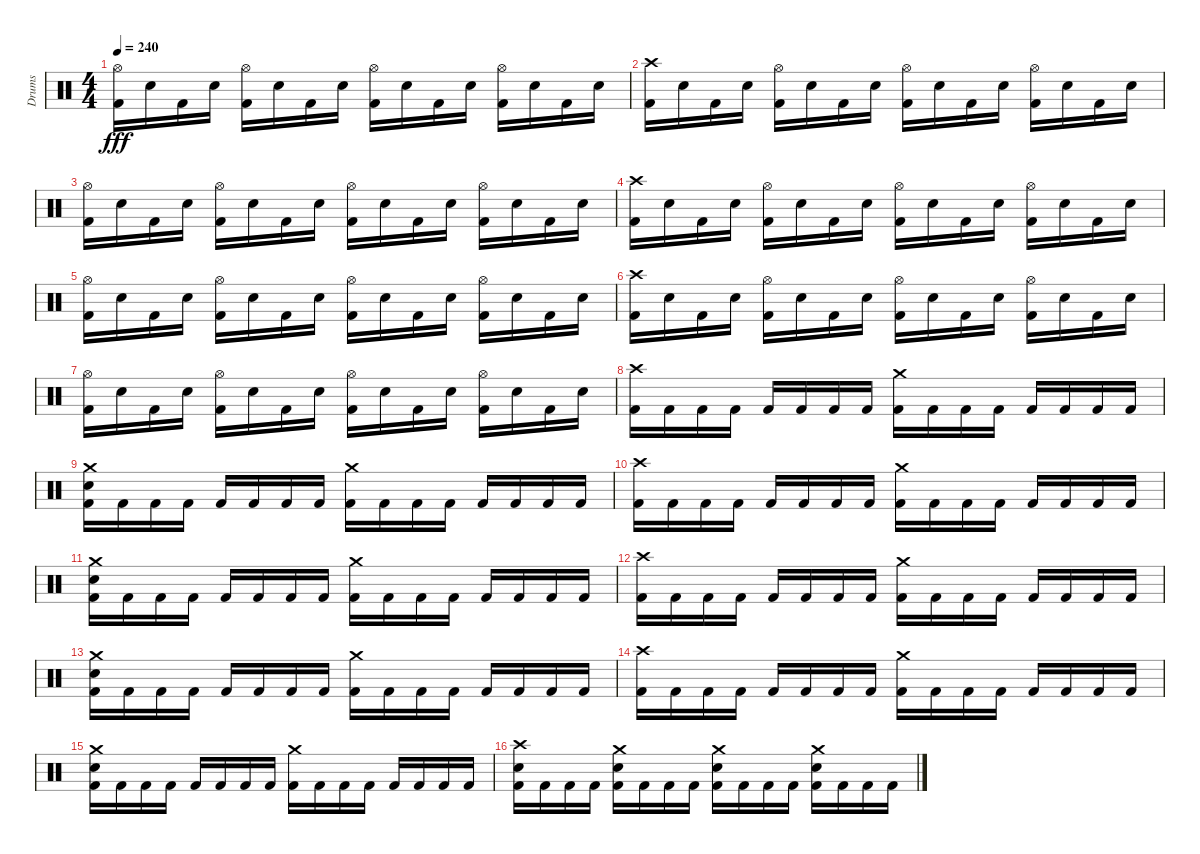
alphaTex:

\track ("Drums" "Drums") {instrument percussion}
\staff {score}
\articulation defaults
\ts (4 4)
\tempo 240
\clef neutral
\ks c
("Hi-Hat (open)" "Kick (hit) 2").16{dy fff} "Electric Snare (hit)".16 "Kick (hit) 2".16 "Electric Snare (hit)".16 ("Hi-Hat (open)" "Kick (hit) 2").16 "Electric Snare (hit)".16 "Kick (hit) 2".16 "Electric Snare (hit)".16 ("Hi-Hat (open)" "Kick (hit) 2").16 "Electric Snare (hit)".16 "Kick (hit) 2".16 "Electric Snare (hit)".16 ("Hi-Hat (open)" "Kick (hit) 2").16 "Electric Snare (hit)".16 "Kick (hit) 2".16 "Electric Snare (hit)".16 |
("Crash high (hit)" "Kick (hit) 2").16 "Electric Snare (hit)".16 "Kick (hit) 2".16 "Electric Snare (hit)".16 ("Hi-Hat (open)" "Kick (hit) 2").16 "Electric Snare (hit)".16 "Kick (hit) 2".16 "Electric Snare (hit)".16 ("Hi-Hat (open)" "Kick (hit) 2").16 "Electric Snare (hit)".16 "Kick (hit) 2".16 "Electric Snare (hit)".16 ("Hi-Hat (open)" "Kick (hit) 2").16 "Electric Snare (hit)".16 "Kick (hit) 2".16 "Electric Snare (hit)".16 |
("Hi-Hat (open)" "Kick (hit) 2").16 "Electric Snare (hit)".16 "Kick (hit) 2".16 "Electric Snare (hit)".16 ("Hi-Hat (open)" "Kick (hit) 2").16 "Electric Snare (hit)".16 "Kick (hit) 2".16 "Electric Snare (hit)".16 ("Hi-Hat (open)" "Kick (hit) 2").16 "Electric Snare (hit)".16 "Kick (hit) 2".16 "Electric Snare (hit)".16 ("Hi-Hat (open)" "Kick (hit) 2").16 "Electric Snare (hit)".16 "Kick (hit) 2".16 "Electric Snare (hit)".16 |
("Crash high (hit)" "Kick (hit) 2").16 "Electric Snare (hit)".16 "Kick (hit) 2".16 "Electric Snare (hit)".16 ("Hi-Hat (open)" "Kick (hit) 2").16 "Electric Snare (hit)".16 "Kick (hit) 2".16 "Electric Snare (hit)".16 ("Hi-Hat (open)" "Kick (hit) 2").16 "Electric Snare (hit)".16 "Kick (hit) 2".16 "Electric Snare (hit)".16 ("Hi-Hat (open)" "Kick (hit) 2").16 "Electric Snare (hit)".16 "Kick (hit) 2".16 "Electric Snare (hit)".16 |
("Hi-Hat (open)" "Kick (hit) 2").16 "Electric Snare (hit)".16 "Kick (hit) 2".16 "Electric Snare (hit)".16 ("Hi-Hat (open)" "Kick (hit) 2").16 "Electric Snare (hit)".16 "Kick (hit) 2".16 "Electric Snare (hit)".16 ("Hi-Hat (open)" "Kick (hit) 2").16 "Electric Snare (hit)".16 "Kick (hit) 2".16 "Electric Snare (hit)".16 ("Hi-Hat (open)" "Kick (hit) 2").16 "Electric Snare (hit)".16 "Kick (hit) 2".16 "Electric Snare (hit)".16 |
("Crash high (hit)" "Kick (hit) 2").16 "Electric Snare (hit)".16 "Kick (hit) 2".16 "Electric Snare (hit)".16 ("Hi-Hat (open)" "Kick (hit) 2").16 "Electric Snare (hit)".16 "Kick (hit) 2".16 "Electric Snare (hit)".16 ("Hi-Hat (open)" "Kick (hit) 2").16 "Electric Snare (hit)".16 "Kick (hit) 2".16 "Electric Snare (hit)".16 ("Hi-Hat (open)" "Kick (hit) 2").16 "Electric Snare (hit)".16 "Kick (hit) 2".16 "Electric Snare (hit)".16 |
("Hi-Hat (open)" "Kick (hit) 2").16 "Electric Snare (hit)".16 "Kick (hit) 2".16 "Electric Snare (hit)".16 ("Hi-Hat (open)" "Kick (hit) 2").16 "Electric Snare (hit)".16 "Kick (hit) 2".16 "Electric Snare (hit)".16 ("Hi-Hat (open)" "Kick (hit) 2").16 "Electric Snare (hit)".16 "Kick (hit) 2".16 "Electric Snare (hit)".16 ("Hi-Hat (open)" "Kick (hit) 2").16 "Electric Snare (hit)".16 "Kick (hit) 2".16 "Electric Snare (hit)".16 |
("Crash high (hit)" "Kick (hit) 2").16 "Kick (hit) 2".16 "Kick (hit) 2".16 "Kick (hit) 2".16 "Kick (hit) 2".16 "Kick (hit) 2".16 "Kick (hit) 2".16 "Kick (hit) 2".16 ("Crash medium (hit)" "Kick (hit) 2").16 "Kick (hit) 2".16 "Kick (hit) 2".16 "Kick (hit) 2".16 "Kick (hit) 2".16 "Kick (hit) 2".16 "Kick (hit) 2".16 "Kick (hit) 2".16 |
("Crash medium (hit)" "Electric Snare (hit)" "Kick (hit) 2").16 "Kick (hit) 2".16 "Kick (hit) 2".16 "Kick (hit) 2".16 "Kick (hit) 2".16 "Kick (hit) 2".16 "Kick (hit) 2".16 "Kick (hit) 2".16 ("Crash medium (hit)" "Kick (hit) 2").16 "Kick (hit) 2".16 "Kick (hit) 2".16 "Kick (hit) 2".16 "Kick (hit) 2".16 "Kick (hit) 2".16 "Kick (hit) 2".16 "Kick (hit) 2".16 |
("Crash high (hit)" "Kick (hit) 2").16 "Kick (hit) 2".16 "Kick (hit) 2".16 "Kick (hit) 2".16 "Kick (hit) 2".16 "Kick (hit) 2".16 "Kick (hit) 2".16 "Kick (hit) 2".16 ("Crash medium (hit)" "Kick (hit) 2").16 "Kick (hit) 2".16 "Kick (hit) 2".16 "Kick (hit) 2".16 "Kick (hit) 2".16 "Kick (hit) 2".16 "Kick (hit) 2".16 "Kick (hit) 2".16 |
("Crash medium (hit)" "Electric Snare (hit)" "Kick (hit) 2").16 "Kick (hit) 2".16 "Kick (hit) 2".16 "Kick (hit) 2".16 "Kick (hit) 2".16 "Kick (hit) 2".16 "Kick (hit) 2".16 "Kick (hit) 2".16 ("Crash medium (hit)" "Kick (hit) 2").16 "Kick (hit) 2".16 "Kick (hit) 2".16 "Kick (hit) 2".16 "Kick (hit) 2".16 "Kick (hit) 2".16 "Kick (hit) 2".16 "Kick (hit) 2".16 |
("Crash high (hit)" "Kick (hit) 2").16 "Kick (hit) 2".16 "Kick (hit) 2".16 "Kick (hit) 2".16 "Kick (hit) 2".16 "Kick (hit) 2".16 "Kick (hit) 2".16 "Kick (hit) 2".16 ("Crash medium (hit)" "Kick (hit) 2").16 "Kick (hit) 2".16 "Kick (hit) 2".16 "Kick (hit) 2".16 "Kick (hit) 2".16 "Kick (hit) 2".16 "Kick (hit) 2".16 "Kick (hit) 2".16 |
("Crash medium (hit)" "Electric Snare (hit)" "Kick (hit) 2").16 "Kick (hit) 2".16 "Kick (hit) 2".16 "Kick (hit) 2".16 "Kick (hit) 2".16 "Kick (hit) 2".16 "Kick (hit) 2".16 "Kick (hit) 2".16 ("Crash medium (hit)" "Kick (hit) 2").16 "Kick (hit) 2".16 "Kick (hit) 2".16 "Kick (hit) 2".16 "Kick (hit) 2".16 "Kick (hit) 2".16 "Kick (hit) 2".16 "Kick (hit) 2".16 |
("Crash high (hit)" "Kick (hit) 2").16 "Kick (hit) 2".16 "Kick (hit) 2".16 "Kick (hit) 2".16 "Kick (hit) 2".16 "Kick (hit) 2".16 "Kick (hit) 2".16 "Kick (hit) 2".16 ("Crash medium (hit)" "Kick (hit) 2").16 "Kick (hit) 2".16 "Kick (hit) 2".16 "Kick (hit) 2".16 "Kick (hit) 2".16 "Kick (hit) 2".16 "Kick (hit) 2".16 "Kick (hit) 2".16 |
("Crash medium (hit)" "Electric Snare (hit)" "Kick (hit) 2").16 "Kick (hit) 2".16 "Kick (hit) 2".16 "Kick (hit) 2".16 "Kick (hit) 2".16 "Kick (hit) 2".16 "Kick (hit) 2".16 "Kick (hit) 2".16 ("Crash medium (hit)" "Kick (hit) 2").16 "Kick (hit) 2".16 "Kick (hit) 2".16 "Kick (hit) 2".16 "Kick (hit) 2".16 "Kick (hit) 2".16 "Kick (hit) 2".16 "Kick (hit) 2".16 |
("Crash high (hit)" "Electric Snare (hit)" "Kick (hit) 2").16 "Kick (hit) 2".16 "Kick (hit) 2".16 "Kick (hit) 2".16 ("Crash medium (hit)" "Electric Snare (hit)" "Kick (hit) 2").16 "Kick (hit) 2".16 "Kick (hit) 2".16 "Kick (hit) 2".16 ("Crash medium (hit)" "Electric Snare (hit)" "Kick (hit) 2").16 "Kick (hit) 2".16 "Kick (hit) 2".16 "Kick (hit) 2".16 ("Crash medium (hit)" "Electric Snare (hit)" "Kick (hit) 2").16 "Kick (hit) 2".16 "Kick (hit) 2".16 "Kick (hit) 2".16
